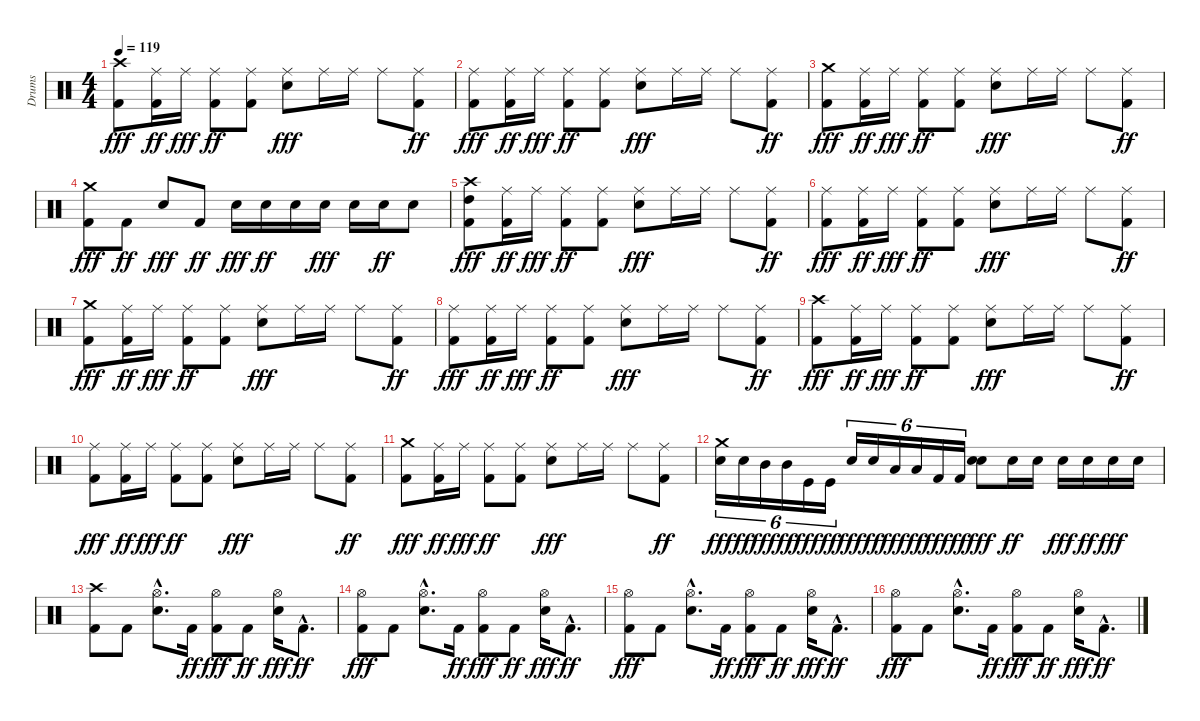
\track ("Drums" "Drums") {instrument percussion}
\staff {score}
\articulation defaults
\ts (4 4)
\tempo 119
\clef neutral
\ks c
("Kick (hit) 2" "Crash high (hit)").8{dy fff} ("Ride (middle)" "Kick (hit) 2").16{dy ff} "Ride (middle)".16{dy fff} ("Ride (middle)" "Kick (hit) 2").8{dy ff} ("Ride (middle)" "Kick (hit) 2").8 ("Ride (middle)" "Snare (hit) 2").8{dy fff} "Ride (middle)".16 "Ride (middle)".16 "Ride (middle)".8 ("Ride (middle)" "Kick (hit) 2").8{dy ff} |
("Ride (middle)" "Kick (hit) 2").8{dy fff} ("Ride (middle)" "Kick (hit) 2").16{dy ff} "Ride (middle)".16{dy fff} ("Ride (middle)" "Kick (hit) 2").8{dy ff} ("Ride (middle)" "Kick (hit) 2").8 ("Ride (middle)" "Snare (hit) 2").8{dy fff} "Ride (middle)".16 "Ride (middle)".16 "Ride (middle)".8 ("Ride (middle)" "Kick (hit) 2").8{dy ff} |
("Kick (hit) 2" "Crash medium (hit)").8{dy fff} ("Ride (middle)" "Kick (hit) 2").16{dy ff} "Ride (middle)".16{dy fff} ("Ride (middle)" "Kick (hit) 2").8{dy ff} ("Ride (middle)" "Kick (hit) 2").8 ("Ride (middle)" "Snare (hit) 2").8{dy fff} "Ride (middle)".16 "Ride (middle)".16 "Ride (middle)".8 ("Ride (middle)" "Kick (hit) 2").8{dy ff} |
("Kick (hit) 2" "Crash medium (hit)").8{dy fff} "Kick (hit) 2".8{dy ff} "Electric Snare (hit)".8{dy fff} "Kick (hit) 2".8{dy ff} "Electric Snare (hit)".16{dy fff} "Electric Snare (hit)".16{dy ff} "Electric Snare (hit)".16 "Electric Snare (hit)".16{dy fff} "Electric Snare (hit)".16 "Electric Snare (hit)".16{dy ff} "Snare (hit) 2".8 |
("Crash high (hit)" "Kick (hit) 2" "High Tom (hit)").8{dy fff} ("Ride (middle)" "Kick (hit) 2").16{dy ff} "Ride (middle)".16{dy fff} ("Ride (middle)" "Kick (hit) 2").8{dy ff} ("Ride (middle)" "Kick (hit) 2").8 ("Ride (middle)" "Snare (hit) 2").8{dy fff} "Ride (middle)".16 "Ride (middle)".16 "Ride (middle)".8 ("Ride (middle)" "Kick (hit) 2").8{dy ff} |
("Ride (middle)" "Kick (hit) 2").8{dy fff} ("Ride (middle)" "Kick (hit) 2").16{dy ff} "Ride (middle)".16{dy fff} ("Ride (middle)" "Kick (hit) 2").8{dy ff} ("Ride (middle)" "Kick (hit) 2").8 ("Ride (middle)" "Snare (hit) 2").8{dy fff} "Ride (middle)".16 "Ride (middle)".16 "Ride (middle)".8 ("Ride (middle)" "Kick (hit) 2").8{dy ff} |
("Kick (hit) 2" "Crash medium (hit)").8{dy fff} ("Ride (middle)" "Kick (hit) 2").16{dy ff} "Ride (middle)".16{dy fff} ("Ride (middle)" "Kick (hit) 2").8{dy ff} ("Ride (middle)" "Kick (hit) 2").8 ("Ride (middle)" "Snare (hit) 2").8{dy fff} "Ride (middle)".16 "Ride (middle)".16 "Ride (middle)".8 ("Ride (middle)" "Kick (hit) 2").8{dy ff} |
("Ride (middle)" "Kick (hit) 2").8{dy fff} ("Ride (middle)" "Kick (hit) 2").16{dy ff} "Ride (middle)".16{dy fff} ("Ride (middle)" "Kick (hit) 2").8{dy ff} ("Ride (middle)" "Kick (hit) 2").8 ("Ride (middle)" "Snare (hit) 2").8{dy fff} "Ride (middle)".16 "Ride (middle)".16 "Ride (middle)".8 ("Ride (middle)" "Kick (hit) 2").8{dy ff} |
("Kick (hit) 2" "Crash high (hit)").8{dy fff} ("Ride (middle)" "Kick (hit) 2").16{dy ff} "Ride (middle)".16{dy fff} ("Ride (middle)" "Kick (hit) 2").8{dy ff} ("Ride (middle)" "Kick (hit) 2").8 ("Ride (middle)" "Snare (hit) 2").8{dy fff} "Ride (middle)".16 "Ride (middle)".16 "Ride (middle)".8 ("Ride (middle)" "Kick (hit) 2").8{dy ff} |
("Ride (middle)" "Kick (hit) 2").8{dy fff} ("Ride (middle)" "Kick (hit) 2").16{dy ff} "Ride (middle)".16{dy fff} ("Ride (middle)" "Kick (hit) 2").8{dy ff} ("Ride (middle)" "Kick (hit) 2").8 ("Ride (middle)" "Snare (hit) 2").8{dy fff} "Ride (middle)".16 "Ride (middle)".16 "Ride (middle)".8 ("Ride (middle)" "Kick (hit) 2").8{dy ff} |
("Kick (hit) 2" "Crash medium (hit)").8{dy fff} ("Ride (middle)" "Kick (hit) 2").16{dy ff} "Ride (middle)".16{dy fff} ("Ride (middle)" "Kick (hit) 2").8{dy ff} ("Ride (middle)" "Kick (hit) 2").8 ("Ride (middle)" "Snare (hit) 2").8{dy fff} "Ride (middle)".16 "Ride (middle)".16 "Ride (middle)".8 ("Ride (middle)" "Kick (hit) 2").8{dy ff} |
("Electric Snare (hit)" "Crash medium (hit)").16{tu (6 4) dy fff} "Electric Snare (hit)".16{tu (6 4) dy ff} "Mid Tom (hit)".16{tu (6 4) dy fff} "Mid Tom (hit)".16{tu (6 4) dy ff} "Kick (hit)".16{tu (6 4) dy fff} "Kick (hit)".16{tu (6 4) dy ff} "Snare (hit) 2".16{tu (6 4) dy fff} "Electric Snare (hit)".16{tu (6 4) dy ff} "Low Tom (hit)".16{tu (6 4) dy fff} "Low Tom (hit)".16{tu (6 4) dy ff} "Kick (hit) 2".16{tu (6 4) dy fff} "Kick (hit) 2".16{tu (6 4) dy ff} ("Snare (hit) 2" "Snare (hit) 2").8{dy fff} "Snare (hit) 2".16{dy ff} "Snare (hit) 2".16 "Snare (hit) 2".16{dy fff} "Snare (hit) 2".16{dy ff} "Snare (hit) 2".16{dy fff} "Snare (hit) 2".16 |
("Kick (hit) 2" "Crash high (hit)").8 "Kick (hit) 2".8 ("Hi-Hat (open)" "Snare (hit) 2"{hac}).8{d} "Kick (hit) 2".16{dy ff} ("Hi-Hat (open)" "Kick (hit) 2").8{dy fff} "Kick (hit) 2".8{dy ff} ("Hi-Hat (open)" "Snare (hit) 2").16{dy fff} "Kick (hit) 2"{hac}.8{d dy ff} |
("Hi-Hat (open)" "Kick (hit) 2").8{dy fff} "Kick (hit) 2".8 ("Hi-Hat (open)" "Snare (hit) 2"{hac}).8{d} "Kick (hit) 2".16{dy ff} ("Hi-Hat (open)" "Kick (hit) 2").8{dy fff} "Kick (hit) 2".8{dy ff} ("Hi-Hat (open)" "Snare (hit) 2").16{dy fff} "Kick (hit) 2"{hac}.8{d dy ff} |
("Hi-Hat (open)" "Kick (hit) 2").8{dy fff} "Kick (hit) 2".8 ("Hi-Hat (open)" "Snare (hit) 2"{hac}).8{d} "Kick (hit) 2".16{dy ff} ("Hi-Hat (open)" "Kick (hit) 2").8{dy fff} "Kick (hit) 2".8{dy ff} ("Hi-Hat (open)" "Snare (hit) 2").16{dy fff} "Kick (hit) 2"{hac}.8{d dy ff} |
("Hi-Hat (open)" "Kick (hit) 2").8{dy fff} "Kick (hit) 2".8 ("Hi-Hat (open)" "Snare (hit) 2"{hac}).8{d} "Kick (hit) 2".16{dy ff} ("Hi-Hat (open)" "Kick (hit) 2").8{dy fff} "Kick (hit) 2".8{dy ff} ("Hi-Hat (open)" "Snare (hit) 2").16{dy fff} "Kick (hit) 2"{hac}.8{d dy ff}
